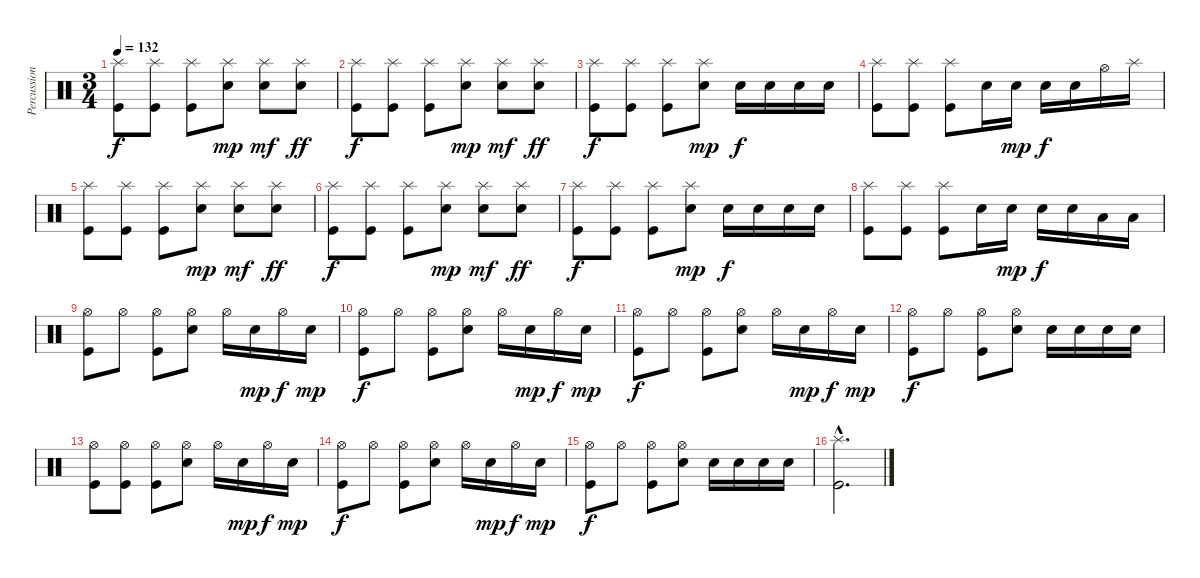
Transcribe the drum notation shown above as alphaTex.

\track ("Percussion" "Percussion") {instrument percussion}
\staff {score}
\articulation defaults
\ts (3 4)
\tempo 132
\clef neutral
\ks c
("Splash (hit)" "Kick (hit)").8{dy f} ("Splash (hit)" "Kick (hit)").8 ("Splash (hit)" "Kick (hit)").8 ("Splash (hit)" "Snare (hit) 2").8{dy mp} ("Splash (hit)" "Snare (hit) 2").8{dy mf} ("Splash (hit)" "Snare (hit) 2").8{dy ff} |
("Splash (hit)" "Kick (hit)").8{dy f} ("Splash (hit)" "Kick (hit)").8 ("Splash (hit)" "Kick (hit)").8 ("Splash (hit)" "Snare (hit) 2").8{dy mp} ("Splash (hit)" "Snare (hit) 2").8{dy mf} ("Splash (hit)" "Snare (hit) 2").8{dy ff} |
("Splash (hit)" "Kick (hit)").8{dy f} ("Splash (hit)" "Kick (hit)").8 ("Splash (hit)" "Kick (hit)").8 ("Splash (hit)" "Snare (hit) 2").8{dy mp} "Snare (hit) 2".16{dy f} "Snare (hit) 2".16 "Snare (hit) 2".16 "Snare (hit) 2".16 |
("Splash (hit)" "Kick (hit)").8 ("Splash (hit)" "Kick (hit)").8 ("Splash (hit)" "Kick (hit)").8 "Snare (hit) 2".16 "Snare (hit) 2".16{dy mp} "Snare (hit) 2".16{dy f} "Snare (hit) 2".16 "Hi-Hat (open)".16 "Splash (hit)".16 |
("Splash (hit)" "Kick (hit)").8 ("Splash (hit)" "Kick (hit)").8 ("Splash (hit)" "Kick (hit)").8 ("Splash (hit)" "Snare (hit) 2").8{dy mp} ("Splash (hit)" "Snare (hit) 2").8{dy mf} ("Splash (hit)" "Snare (hit) 2").8{dy ff} |
("Splash (hit)" "Kick (hit)").8{dy f} ("Splash (hit)" "Kick (hit)").8 ("Splash (hit)" "Kick (hit)").8 ("Splash (hit)" "Snare (hit) 2").8{dy mp} ("Splash (hit)" "Snare (hit) 2").8{dy mf} ("Splash (hit)" "Snare (hit) 2").8{dy ff} |
("Splash (hit)" "Kick (hit)").8{dy f} ("Splash (hit)" "Kick (hit)").8 ("Splash (hit)" "Kick (hit)").8 ("Splash (hit)" "Snare (hit) 2").8{dy mp} "Snare (hit) 2".16{dy f} "Snare (hit) 2".16 "Snare (hit) 2".16 "Snare (hit) 2".16 |
("Splash (hit)" "Kick (hit)").8 ("Splash (hit)" "Kick (hit)").8 ("Splash (hit)" "Kick (hit)").8 "Snare (hit) 2".16 "Snare (hit) 2".16{dy mp} "Snare (hit) 2".16{dy f} "Snare (hit) 2".16 "Low Tom (hit)".16 "Low Tom (hit)".16 |
("Hi-Hat (open)" "Kick (hit)").8 "Hi-Hat (open)".8 ("Hi-Hat (open)" "Kick (hit)").8 ("Hi-Hat (open)" "Snare (hit) 2").8 "Hi-Hat (open)".16 "Snare (hit) 2".16{dy mp} "Hi-Hat (open)".16{dy f} "Snare (hit) 2".16{dy mp} |
("Hi-Hat (open)" "Kick (hit)").8{dy f} "Hi-Hat (open)".8 ("Hi-Hat (open)" "Kick (hit)").8 ("Hi-Hat (open)" "Snare (hit) 2").8 "Hi-Hat (open)".16 "Snare (hit) 2".16{dy mp} "Hi-Hat (open)".16{dy f} "Snare (hit) 2".16{dy mp} |
("Hi-Hat (open)" "Kick (hit)").8{dy f} "Hi-Hat (open)".8 ("Hi-Hat (open)" "Kick (hit)").8 ("Hi-Hat (open)" "Snare (hit) 2").8 "Hi-Hat (open)".16 "Snare (hit) 2".16{dy mp} "Hi-Hat (open)".16{dy f} "Snare (hit) 2".16{dy mp} |
("Hi-Hat (open)" "Kick (hit)").8{dy f} "Hi-Hat (open)".8 ("Hi-Hat (open)" "Kick (hit)").8 ("Hi-Hat (open)" "Snare (hit) 2").8 "Snare (hit) 2".16 "Snare (hit) 2".16 "Snare (hit) 2".16 "Snare (hit) 2".16 |
("Hi-Hat (open)" "Kick (hit)").8 ("Hi-Hat (open)" "Kick (hit)").8 ("Hi-Hat (open)" "Kick (hit)").8 ("Hi-Hat (open)" "Snare (hit) 2").8 "Hi-Hat (open)".16 "Snare (hit) 2".16{dy mp} "Hi-Hat (open)".16{dy f} "Snare (hit) 2".16{dy mp} |
("Hi-Hat (open)" "Kick (hit)").8{dy f} "Hi-Hat (open)".8 ("Hi-Hat (open)" "Kick (hit)").8 ("Hi-Hat (open)" "Snare (hit) 2").8 "Hi-Hat (open)".16 "Snare (hit) 2".16{dy mp} "Hi-Hat (open)".16{dy f} "Snare (hit) 2".16{dy mp} |
("Hi-Hat (open)" "Kick (hit)").8{dy f} "Hi-Hat (open)".8 ("Hi-Hat (open)" "Kick (hit)").8 ("Hi-Hat (open)" "Snare (hit) 2").8 "Snare (hit) 2".16 "Snare (hit) 2".16 "Snare (hit) 2".16 "Snare (hit) 2".16 |
("Splash (hit)"{hac} "Kick (hit)"{hac}).2{d}
